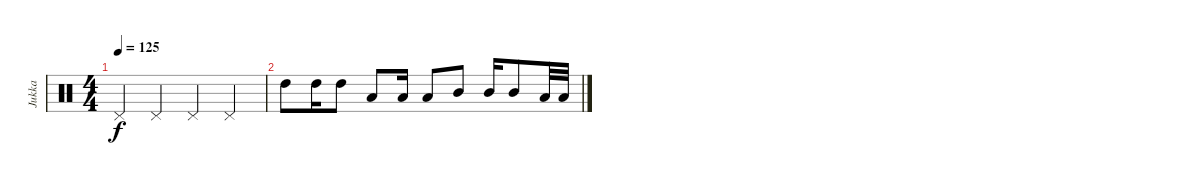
\track ("Jukka" "Jukka") {instrument percussion}
\staff {score}
\articulation defaults
\ts (4 4)
\tempo 125
\clef neutral
\ks c "Pedal Hi-Hat (hit)".4{dy f} "Pedal Hi-Hat (hit)".4 "Pedal Hi-Hat (hit)".4 "Pedal Hi-Hat (hit)".4
|
"High Tom (hit)".8 "High Tom (hit)".16 "High Tom (hit)".8 "Low Tom (hit)".8 "Low Tom (hit)".16 "Low Tom (hit)".8 "Mid Tom (hit)".8 "Mid Tom (hit)".16 "Mid Tom (hit)".8 "Low Floor Tom (hit)".32 "Low Floor Tom (hit)".32
